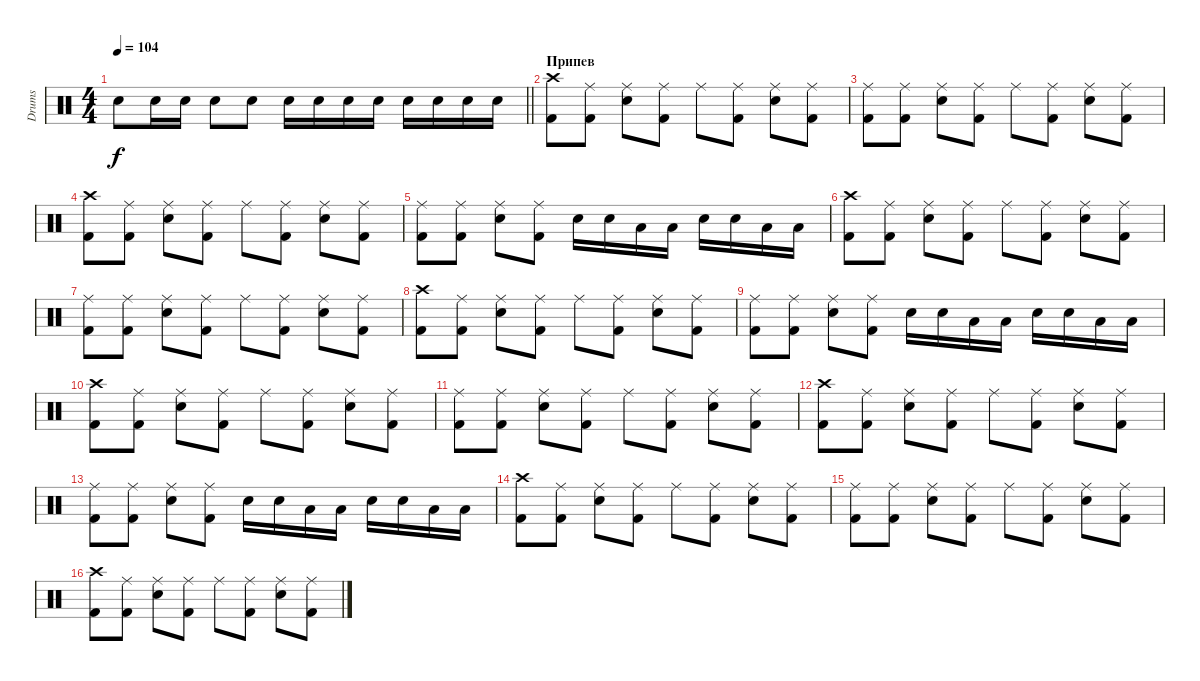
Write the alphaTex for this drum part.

\track ("Drums" "Drums") {instrument percussion}
\staff {score}
\articulation defaults
\ts (4 4)
\tempo 104
\clef neutral
\barLineRight lightlight
\ks c "Snare (hit) 2".8{dy f} "Snare (hit) 2".16 "Snare (hit) 2".16 "Snare (hit) 2".8 "Snare (hit) 2".8 "Snare (hit) 2".16 "Snare (hit) 2".16 "Snare (hit) 2".16 "Snare (hit) 2".16 "Snare (hit) 2".16 "Snare (hit) 2".16 "Snare (hit) 2".16 "Snare (hit) 2".16
|
\section ("" "Припев")
("Crash high (hit)" "Kick (hit) 2").8 ("Ride (middle)" "Kick (hit) 2").8 ("Ride (middle)" "Snare (hit) 2").8 ("Ride (middle)" "Kick (hit) 2").8 "Ride (middle)".8 ("Ride (middle)" "Kick (hit) 2").8 ("Ride (middle)" "Snare (hit) 2").8 ("Ride (middle)" "Kick (hit) 2").8 |
("Ride (middle)" "Kick (hit) 2").8 ("Ride (middle)" "Kick (hit) 2").8 ("Ride (middle)" "Snare (hit) 2").8 ("Ride (middle)" "Kick (hit) 2").8 "Ride (middle)".8 ("Ride (middle)" "Kick (hit) 2").8 ("Ride (middle)" "Snare (hit) 2").8 ("Ride (middle)" "Kick (hit) 2").8 |
("Crash high (hit)" "Kick (hit) 2").8 ("Ride (middle)" "Kick (hit) 2").8 ("Ride (middle)" "Snare (hit) 2").8 ("Ride (middle)" "Kick (hit) 2").8 "Ride (middle)".8 ("Ride (middle)" "Kick (hit) 2").8 ("Ride (middle)" "Snare (hit) 2").8 ("Ride (middle)" "Kick (hit) 2").8 |
("Ride (middle)" "Kick (hit) 2").8 ("Ride (middle)" "Kick (hit) 2").8 ("Ride (middle)" "Snare (hit) 2").8 ("Ride (middle)" "Kick (hit) 2").8 "Snare (hit) 2".16 "Snare (hit) 2".16 "Low Tom (hit)".16 "Low Tom (hit)".16 "Snare (hit) 2".16 "Snare (hit) 2".16 "Low Tom (hit)".16 "Low Tom (hit)".16 |
("Crash high (hit)" "Kick (hit) 2").8 ("Ride (middle)" "Kick (hit) 2").8 ("Ride (middle)" "Snare (hit) 2").8 ("Ride (middle)" "Kick (hit) 2").8 "Ride (middle)".8 ("Ride (middle)" "Kick (hit) 2").8 ("Ride (middle)" "Snare (hit) 2").8 ("Ride (middle)" "Kick (hit) 2").8 |
("Ride (middle)" "Kick (hit) 2").8 ("Ride (middle)" "Kick (hit) 2").8 ("Ride (middle)" "Snare (hit) 2").8 ("Ride (middle)" "Kick (hit) 2").8 "Ride (middle)".8 ("Ride (middle)" "Kick (hit) 2").8 ("Ride (middle)" "Snare (hit) 2").8 ("Ride (middle)" "Kick (hit) 2").8 |
("Crash high (hit)" "Kick (hit) 2").8 ("Ride (middle)" "Kick (hit) 2").8 ("Ride (middle)" "Snare (hit) 2").8 ("Ride (middle)" "Kick (hit) 2").8 "Ride (middle)".8 ("Ride (middle)" "Kick (hit) 2").8 ("Ride (middle)" "Snare (hit) 2").8 ("Ride (middle)" "Kick (hit) 2").8 |
("Ride (middle)" "Kick (hit) 2").8 ("Ride (middle)" "Kick (hit) 2").8 ("Ride (middle)" "Snare (hit) 2").8 ("Ride (middle)" "Kick (hit) 2").8 "Snare (hit) 2".16 "Snare (hit) 2".16 "Low Tom (hit)".16 "Low Tom (hit)".16 "Snare (hit) 2".16 "Snare (hit) 2".16 "Low Tom (hit)".16 "Low Tom (hit)".16 |
("Crash high (hit)" "Kick (hit) 2").8 ("Ride (middle)" "Kick (hit) 2").8 ("Ride (middle)" "Snare (hit) 2").8 ("Ride (middle)" "Kick (hit) 2").8 "Ride (middle)".8 ("Ride (middle)" "Kick (hit) 2").8 ("Ride (middle)" "Snare (hit) 2").8 ("Ride (middle)" "Kick (hit) 2").8 |
("Ride (middle)" "Kick (hit) 2").8 ("Ride (middle)" "Kick (hit) 2").8 ("Ride (middle)" "Snare (hit) 2").8 ("Ride (middle)" "Kick (hit) 2").8 "Ride (middle)".8 ("Ride (middle)" "Kick (hit) 2").8 ("Ride (middle)" "Snare (hit) 2").8 ("Ride (middle)" "Kick (hit) 2").8 |
("Crash high (hit)" "Kick (hit) 2").8 ("Ride (middle)" "Kick (hit) 2").8 ("Ride (middle)" "Snare (hit) 2").8 ("Ride (middle)" "Kick (hit) 2").8 "Ride (middle)".8 ("Ride (middle)" "Kick (hit) 2").8 ("Ride (middle)" "Snare (hit) 2").8 ("Ride (middle)" "Kick (hit) 2").8 |
("Ride (middle)" "Kick (hit) 2").8 ("Ride (middle)" "Kick (hit) 2").8 ("Ride (middle)" "Snare (hit) 2").8 ("Ride (middle)" "Kick (hit) 2").8 "Snare (hit) 2".16 "Snare (hit) 2".16 "Low Tom (hit)".16 "Low Tom (hit)".16 "Snare (hit) 2".16 "Snare (hit) 2".16 "Low Tom (hit)".16 "Low Tom (hit)".16 |
("Crash high (hit)" "Kick (hit) 2").8 ("Ride (middle)" "Kick (hit) 2").8 ("Ride (middle)" "Snare (hit) 2").8 ("Ride (middle)" "Kick (hit) 2").8 "Ride (middle)".8 ("Ride (middle)" "Kick (hit) 2").8 ("Ride (middle)" "Snare (hit) 2").8 ("Ride (middle)" "Kick (hit) 2").8 |
("Ride (middle)" "Kick (hit) 2").8 ("Ride (middle)" "Kick (hit) 2").8 ("Ride (middle)" "Snare (hit) 2").8 ("Ride (middle)" "Kick (hit) 2").8 "Ride (middle)".8 ("Ride (middle)" "Kick (hit) 2").8 ("Ride (middle)" "Snare (hit) 2").8 ("Ride (middle)" "Kick (hit) 2").8 |
("Crash high (hit)" "Kick (hit) 2").8 ("Ride (middle)" "Kick (hit) 2").8 ("Ride (middle)" "Snare (hit) 2").8 ("Ride (middle)" "Kick (hit) 2").8 "Ride (middle)".8 ("Ride (middle)" "Kick (hit) 2").8 ("Ride (middle)" "Snare (hit) 2").8 ("Ride (middle)" "Kick (hit) 2").8
